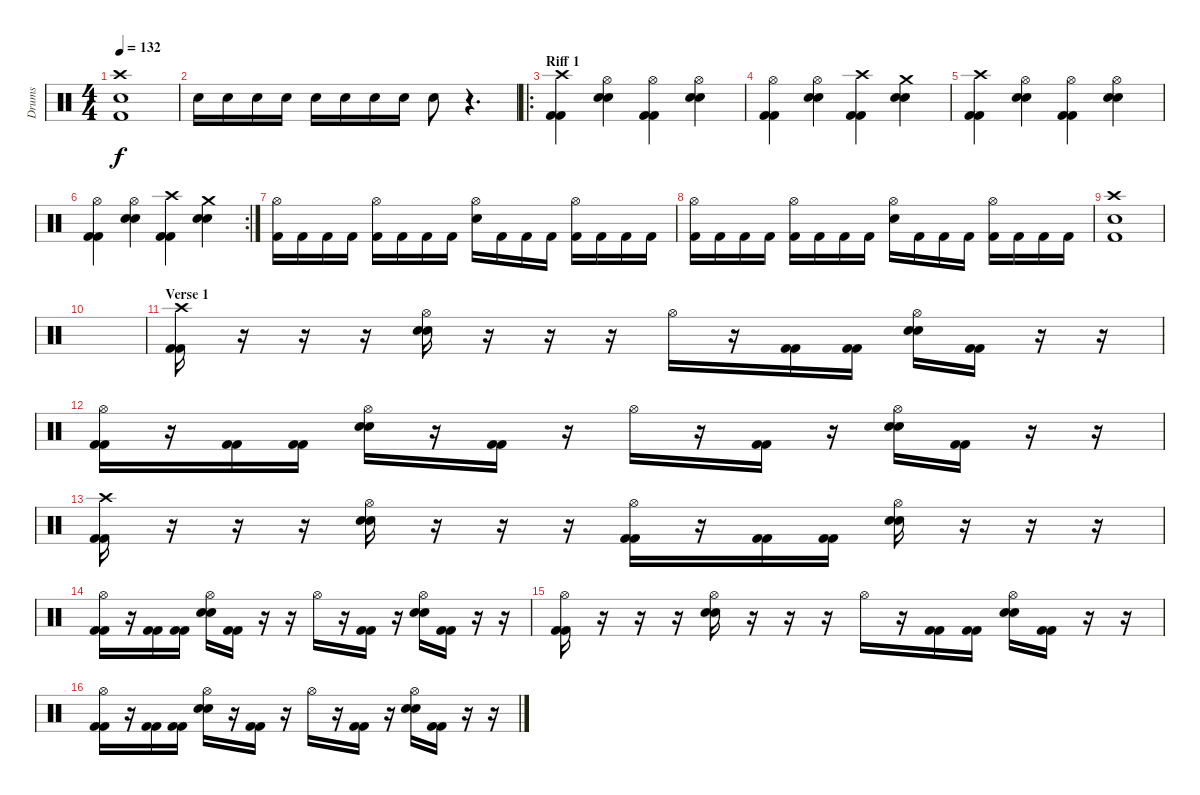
\track ("Drums" "Drums") {instrument percussion}
\staff {score}
\articulation defaults
\ts (4 4)
\tempo 132
\clef neutral
\ks c
("Crash high (hit)" "Snare (hit) 2" "Kick (hit) 2").1{dy f} |
"Snare (hit) 2".16 "Snare (hit) 2".16 "Snare (hit) 2".16 "Snare (hit) 2".16 "Snare (hit) 2".16 "Snare (hit) 2".16 "Snare (hit) 2".16 "Snare (hit) 2".16 "Snare (hit) 2".8 r.4{d} |
\ro
\section ("" "Riff 1")
("Crash high (hit)" "Kick (hit) 2" "Kick (hit) 2").4 ("Hi-Hat (open)" "Snare (hit) 2" "Snare (hit) 2").4 ("Hi-Hat (open)" "Kick (hit) 2" "Kick (hit) 2").4 ("Hi-Hat (open)" "Snare (hit) 2" "Snare (hit) 2").4 |
("Hi-Hat (open)" "Kick (hit) 2" "Kick (hit) 2").4 ("Hi-Hat (open)" "Snare (hit) 2" "Snare (hit) 2").4 ("Crash high (hit)" "Kick (hit) 2" "Kick (hit) 2").4 ("Crash medium (hit)" "Snare (hit) 2" "Snare (hit) 2").4 |
("Crash high (hit)" "Kick (hit) 2" "Kick (hit) 2").4 ("Hi-Hat (open)" "Snare (hit) 2" "Snare (hit) 2").4 ("Hi-Hat (open)" "Kick (hit) 2" "Kick (hit) 2").4 ("Hi-Hat (open)" "Snare (hit) 2" "Snare (hit) 2").4 |
\rc 2
("Hi-Hat (open)" "Kick (hit) 2" "Kick (hit) 2").4 ("Hi-Hat (open)" "Snare (hit) 2" "Snare (hit) 2").4 ("Crash high (hit)" "Kick (hit) 2" "Kick (hit) 2").4 ("Crash medium (hit)" "Snare (hit) 2" "Snare (hit) 2").4 |
("Hi-Hat (open)" "Kick (hit) 2").16 "Kick (hit) 2".16 "Kick (hit) 2".16 "Kick (hit) 2".16 ("Hi-Hat (open)" "Kick (hit) 2").16 "Kick (hit) 2".16 "Kick (hit) 2".16 "Kick (hit) 2".16 ("Hi-Hat (open)" "Snare (hit) 2").16 "Kick (hit) 2".16 "Kick (hit) 2".16 "Kick (hit) 2".16 ("Hi-Hat (open)" "Kick (hit) 2").16 "Kick (hit) 2".16 "Kick (hit) 2".16 "Kick (hit) 2".16 |
("Hi-Hat (open)" "Kick (hit) 2").16 "Kick (hit) 2".16 "Kick (hit) 2".16 "Kick (hit) 2".16 ("Hi-Hat (open)" "Kick (hit) 2").16 "Kick (hit) 2".16 "Kick (hit) 2".16 "Kick (hit) 2".16 ("Hi-Hat (open)" "Snare (hit) 2").16 "Kick (hit) 2".16 "Kick (hit) 2".16 "Kick (hit) 2".16 ("Hi-Hat (open)" "Kick (hit) 2").16 "Kick (hit) 2".16 "Kick (hit) 2".16 "Kick (hit) 2".16 |
("Crash high (hit)" "Snare (hit) 2" "Kick (hit) 2").1 |
|
\section ("" "Verse 1")
("Crash high (hit)" "Kick (hit) 2" "Kick (hit) 2").16 r.16 r.16 r.16 ("Hi-Hat (open)" "Snare (hit) 2" "Snare (hit) 2").16 r.16 r.16 r.16 "Hi-Hat (open)".16 r.16 ("Kick (hit) 2" "Kick (hit) 2").16 ("Kick (hit) 2" "Kick (hit) 2").16 ("Hi-Hat (open)" "Snare (hit) 2" "Snare (hit) 2").16 ("Kick (hit) 2" "Kick (hit) 2").16 r.16 r.16 |
("Hi-Hat (open)" "Kick (hit) 2" "Kick (hit) 2").16 r.16 ("Kick (hit) 2" "Kick (hit) 2").16 ("Kick (hit) 2" "Kick (hit) 2").16 ("Hi-Hat (open)" "Snare (hit) 2" "Snare (hit) 2").16 r.16 ("Kick (hit) 2" "Kick (hit) 2").16 r.16 "Hi-Hat (open)".16 r.16 ("Kick (hit) 2" "Kick (hit) 2").16 r.16 ("Hi-Hat (open)" "Snare (hit) 2" "Snare (hit) 2").16 ("Kick (hit) 2" "Kick (hit) 2").16 r.16 r.16 |
("Crash high (hit)" "Kick (hit) 2" "Kick (hit) 2").16 r.16 r.16 r.16 ("Hi-Hat (open)" "Snare (hit) 2" "Snare (hit) 2").16 r.16 r.16 r.16 ("Hi-Hat (open)" "Kick (hit) 2" "Kick (hit) 2").16 r.16 ("Kick (hit) 2" "Kick (hit) 2").16 ("Kick (hit) 2" "Kick (hit) 2").16 ("Hi-Hat (open)" "Snare (hit) 2" "Snare (hit) 2").16 r.16 r.16 r.16 |
("Hi-Hat (open)" "Kick (hit) 2" "Kick (hit) 2").16 r.16 ("Kick (hit) 2" "Kick (hit) 2").16 ("Kick (hit) 2" "Kick (hit) 2").16 ("Hi-Hat (open)" "Snare (hit) 2" "Snare (hit) 2").16 ("Kick (hit) 2" "Kick (hit) 2").16 r.16 r.16 "Hi-Hat (open)".16 r.16 ("Kick (hit) 2" "Kick (hit) 2").16 r.16 ("Hi-Hat (open)" "Snare (hit) 2" "Snare (hit) 2").16 ("Kick (hit) 2" "Kick (hit) 2").16 r.16 r.16 |
("Hi-Hat (open)" "Kick (hit) 2" "Kick (hit) 2").16 r.16 r.16 r.16 ("Hi-Hat (open)" "Snare (hit) 2" "Snare (hit) 2").16 r.16 r.16 r.16 "Hi-Hat (open)".16 r.16 ("Kick (hit) 2" "Kick (hit) 2").16 ("Kick (hit) 2" "Kick (hit) 2").16 ("Hi-Hat (open)" "Snare (hit) 2" "Snare (hit) 2").16 ("Kick (hit) 2" "Kick (hit) 2").16 r.16 r.16 |
("Hi-Hat (open)" "Kick (hit) 2" "Kick (hit) 2").16 r.16 ("Kick (hit) 2" "Kick (hit) 2").16 ("Kick (hit) 2" "Kick (hit) 2").16 ("Hi-Hat (open)" "Snare (hit) 2" "Snare (hit) 2").16 r.16 ("Kick (hit) 2" "Kick (hit) 2").16 r.16 "Hi-Hat (open)".16 r.16 ("Kick (hit) 2" "Kick (hit) 2").16 r.16 ("Hi-Hat (open)" "Snare (hit) 2" "Snare (hit) 2").16 ("Kick (hit) 2" "Kick (hit) 2").16 r.16 r.16
